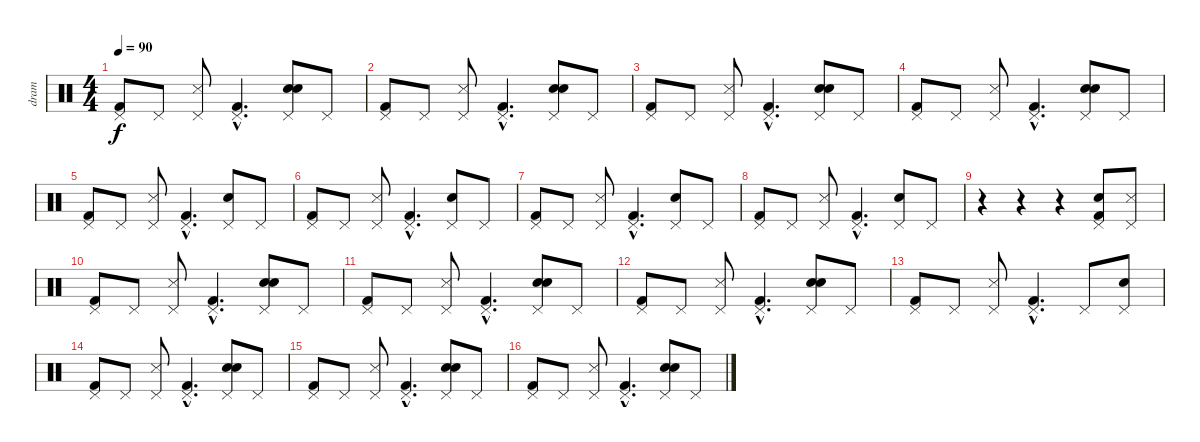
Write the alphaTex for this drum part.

\track ("dram" "dram") {instrument percussion}
\staff {score}
\articulation defaults
\ts (4 4)
\tempo 90
\clef neutral
\ks c
("Pedal Hi-Hat (hit)" "Kick (hit) 2").8{dy f} "Pedal Hi-Hat (hit)".8 ("Pedal Hi-Hat (hit)" "Snare (side stick) 3").8 ("Pedal Hi-Hat (hit)"{hac} "Kick (hit) 2"{hac}).4{d} ("Pedal Hi-Hat (hit)" "Electric Snare (hit)" "Hand Clap (hit)").8 "Pedal Hi-Hat (hit)".8 |
("Pedal Hi-Hat (hit)" "Kick (hit) 2").8 "Pedal Hi-Hat (hit)".8 ("Pedal Hi-Hat (hit)" "Snare (side stick) 3").8 ("Pedal Hi-Hat (hit)"{hac} "Kick (hit) 2"{hac}).4{d} ("Pedal Hi-Hat (hit)" "Electric Snare (hit)" "Hand Clap (hit)").8 "Pedal Hi-Hat (hit)".8 |
("Pedal Hi-Hat (hit)" "Kick (hit) 2").8 "Pedal Hi-Hat (hit)".8 ("Pedal Hi-Hat (hit)" "Snare (side stick) 3").8 ("Pedal Hi-Hat (hit)"{hac} "Kick (hit) 2"{hac}).4{d} ("Pedal Hi-Hat (hit)" "Electric Snare (hit)" "Hand Clap (hit)").8 "Pedal Hi-Hat (hit)".8 |
("Pedal Hi-Hat (hit)" "Kick (hit) 2").8 "Pedal Hi-Hat (hit)".8 ("Pedal Hi-Hat (hit)" "Snare (side stick) 3").8 ("Pedal Hi-Hat (hit)"{hac} "Kick (hit) 2"{hac}).4{d} ("Pedal Hi-Hat (hit)" "Electric Snare (hit)" "Hand Clap (hit)").8 "Pedal Hi-Hat (hit)".8 |
("Pedal Hi-Hat (hit)" "Kick (hit) 2").8 "Pedal Hi-Hat (hit)".8 ("Pedal Hi-Hat (hit)" "Snare (side stick) 3").8 ("Pedal Hi-Hat (hit)"{hac} "Kick (hit) 2"{hac}).4{d} ("Pedal Hi-Hat (hit)" "Hand Clap (hit)").8 "Pedal Hi-Hat (hit)".8 |
("Pedal Hi-Hat (hit)" "Kick (hit) 2").8 "Pedal Hi-Hat (hit)".8 ("Pedal Hi-Hat (hit)" "Snare (side stick) 3").8 ("Pedal Hi-Hat (hit)"{hac} "Kick (hit) 2"{hac}).4{d} ("Pedal Hi-Hat (hit)" "Hand Clap (hit)").8 "Pedal Hi-Hat (hit)".8 |
("Pedal Hi-Hat (hit)" "Kick (hit) 2").8 "Pedal Hi-Hat (hit)".8 ("Pedal Hi-Hat (hit)" "Snare (side stick) 3").8 ("Pedal Hi-Hat (hit)"{hac} "Kick (hit) 2"{hac}).4{d} ("Pedal Hi-Hat (hit)" "Hand Clap (hit)").8 "Pedal Hi-Hat (hit)".8 |
("Pedal Hi-Hat (hit)" "Kick (hit) 2").8 "Pedal Hi-Hat (hit)".8 ("Pedal Hi-Hat (hit)" "Snare (side stick) 3").8 ("Pedal Hi-Hat (hit)"{hac} "Kick (hit) 2"{hac}).4{d} ("Pedal Hi-Hat (hit)" "Electric Snare (hit)").8 "Pedal Hi-Hat (hit)".8 |
r.4 r.4 r.4 ("Pedal Hi-Hat (hit)" "Kick (hit) 2" "Hand Clap (hit)").8 ("Pedal Hi-Hat (hit)" "Snare (side stick) 3").8 |
("Pedal Hi-Hat (hit)" "Kick (hit) 2").8 "Pedal Hi-Hat (hit)".8 ("Pedal Hi-Hat (hit)" "Snare (side stick) 3").8 ("Pedal Hi-Hat (hit)"{hac} "Kick (hit) 2"{hac}).4{d} ("Pedal Hi-Hat (hit)" "Electric Snare (hit)" "Hand Clap (hit)").8 "Pedal Hi-Hat (hit)".8 |
("Pedal Hi-Hat (hit)" "Kick (hit) 2").8 "Pedal Hi-Hat (hit)".8 ("Pedal Hi-Hat (hit)" "Snare (side stick) 3").8 ("Pedal Hi-Hat (hit)"{hac} "Kick (hit) 2"{hac}).4{d} ("Pedal Hi-Hat (hit)" "Electric Snare (hit)" "Hand Clap (hit)").8 "Pedal Hi-Hat (hit)".8 |
("Pedal Hi-Hat (hit)" "Kick (hit) 2").8 "Pedal Hi-Hat (hit)".8 ("Pedal Hi-Hat (hit)" "Snare (side stick) 3").8 ("Pedal Hi-Hat (hit)"{hac} "Kick (hit) 2"{hac}).4{d} ("Pedal Hi-Hat (hit)" "Electric Snare (hit)" "Hand Clap (hit)").8 "Pedal Hi-Hat (hit)".8 |
("Pedal Hi-Hat (hit)" "Kick (hit) 2").8 "Pedal Hi-Hat (hit)".8 ("Pedal Hi-Hat (hit)" "Snare (side stick) 3").8 ("Pedal Hi-Hat (hit)"{hac} "Kick (hit) 2"{hac}).4{d} "Pedal Hi-Hat (hit)".8 ("Pedal Hi-Hat (hit)" "Electric Snare (hit)").8 |
("Pedal Hi-Hat (hit)" "Kick (hit) 2").8 "Pedal Hi-Hat (hit)".8 ("Pedal Hi-Hat (hit)" "Snare (side stick) 3").8 ("Pedal Hi-Hat (hit)"{hac} "Kick (hit) 2"{hac}).4{d} ("Pedal Hi-Hat (hit)" "Electric Snare (hit)" "Hand Clap (hit)").8 "Pedal Hi-Hat (hit)".8 |
("Pedal Hi-Hat (hit)" "Kick (hit) 2").8 "Pedal Hi-Hat (hit)".8 ("Pedal Hi-Hat (hit)" "Snare (side stick) 3").8 ("Pedal Hi-Hat (hit)"{hac} "Kick (hit) 2"{hac}).4{d} ("Pedal Hi-Hat (hit)" "Electric Snare (hit)" "Hand Clap (hit)").8 "Pedal Hi-Hat (hit)".8 |
("Pedal Hi-Hat (hit)" "Kick (hit) 2").8 "Pedal Hi-Hat (hit)".8 ("Pedal Hi-Hat (hit)" "Snare (side stick) 3").8 ("Pedal Hi-Hat (hit)"{hac} "Kick (hit) 2"{hac}).4{d} ("Pedal Hi-Hat (hit)" "Electric Snare (hit)" "Hand Clap (hit)").8 "Pedal Hi-Hat (hit)".8
